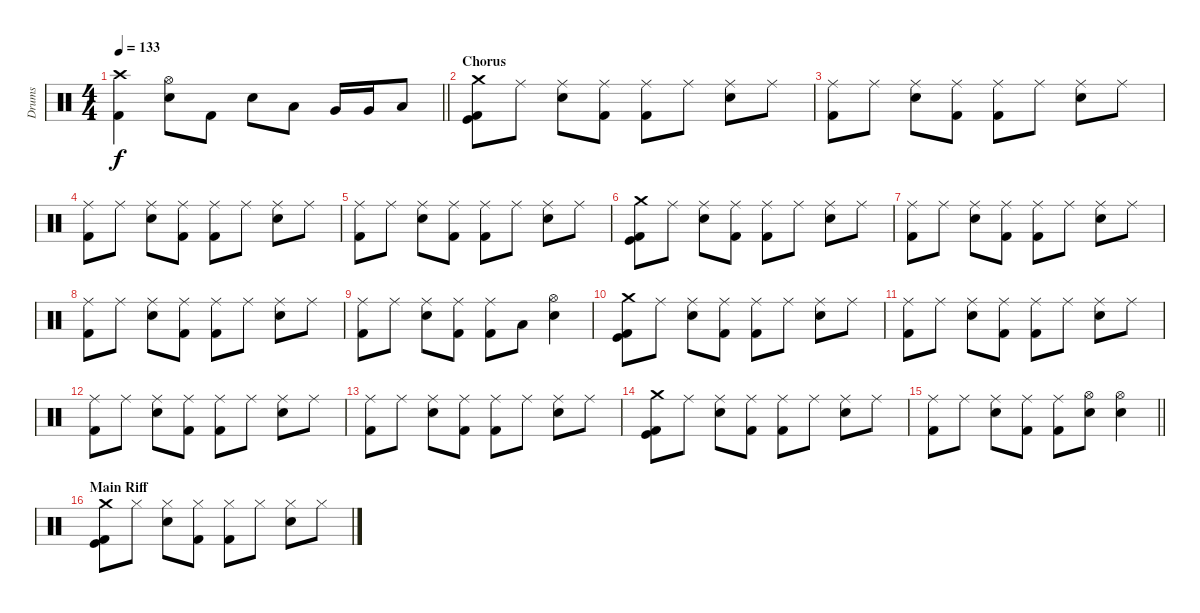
\track ("Drums" "Drums") {instrument percussion}
\staff {score}
\articulation defaults
\ts (4 4)
\tempo 133
\clef neutral
\barLineRight lightlight
\ks c
("Crash high (hit)" "Kick (hit) 2").4{dy f} ("Hi-Hat (open)" "Electric Snare (hit)").8 "Kick (hit) 2".8 "Electric Snare (hit)".8 "Low Tom (hit)".8 "Very Low Tom (hit)".16 "Very Low Tom (hit)".16 "Low Floor Tom (hit)".8 |
\section ("" "Chorus")
("Crash medium (hit)" "Kick (hit) 2" "Kick (hit)").8 "Ride (middle)".8 ("Ride (middle)" "Electric Snare (hit)").8 ("Ride (middle)" "Kick (hit) 2").8 ("Ride (middle)" "Kick (hit) 2").8 "Ride (middle)".8 ("Ride (middle)" "Electric Snare (hit)").8 "Ride (middle)".8 |
("Ride (middle)" "Kick (hit) 2").8 "Ride (middle)".8 ("Ride (middle)" "Electric Snare (hit)").8 ("Ride (middle)" "Kick (hit) 2").8 ("Ride (middle)" "Kick (hit) 2").8 "Ride (middle)".8 ("Ride (middle)" "Electric Snare (hit)").8 "Ride (middle)".8 |
("Ride (middle)" "Kick (hit) 2").8 "Ride (middle)".8 ("Ride (middle)" "Electric Snare (hit)").8 ("Ride (middle)" "Kick (hit) 2").8 ("Ride (middle)" "Kick (hit) 2").8 "Ride (middle)".8 ("Ride (middle)" "Electric Snare (hit)").8 "Ride (middle)".8 |
("Ride (middle)" "Kick (hit) 2").8 "Ride (middle)".8 ("Ride (middle)" "Electric Snare (hit)").8 ("Ride (middle)" "Kick (hit) 2").8 ("Ride (middle)" "Kick (hit) 2").8 "Ride (middle)".8 ("Ride (middle)" "Electric Snare (hit)").8 "Ride (middle)".8 |
("Crash medium (hit)" "Kick (hit) 2" "Kick (hit)").8 "Ride (middle)".8 ("Ride (middle)" "Electric Snare (hit)").8 ("Ride (middle)" "Kick (hit) 2").8 ("Ride (middle)" "Kick (hit) 2").8 "Ride (middle)".8 ("Ride (middle)" "Electric Snare (hit)").8 "Ride (middle)".8 |
("Ride (middle)" "Kick (hit) 2").8 "Ride (middle)".8 ("Ride (middle)" "Electric Snare (hit)").8 ("Ride (middle)" "Kick (hit) 2").8 ("Ride (middle)" "Kick (hit) 2").8 "Ride (middle)".8 ("Ride (middle)" "Electric Snare (hit)").8 "Ride (middle)".8 |
("Ride (middle)" "Kick (hit) 2").8 "Ride (middle)".8 ("Ride (middle)" "Electric Snare (hit)").8 ("Ride (middle)" "Kick (hit) 2").8 ("Ride (middle)" "Kick (hit) 2").8 "Ride (middle)".8 ("Ride (middle)" "Electric Snare (hit)").8 "Ride (middle)".8 |
("Ride (middle)" "Kick (hit) 2").8 "Ride (middle)".8 ("Ride (middle)" "Electric Snare (hit)").8 ("Ride (middle)" "Kick (hit) 2").8 ("Ride (middle)" "Kick (hit) 2").8 "Low Tom (hit)".8 ("Hi-Hat (open)" "Electric Snare (hit)").4 |
("Crash medium (hit)" "Kick (hit) 2" "Kick (hit)").8 "Ride (middle)".8 ("Ride (middle)" "Electric Snare (hit)").8 ("Ride (middle)" "Kick (hit) 2").8 ("Ride (middle)" "Kick (hit) 2").8 "Ride (middle)".8 ("Ride (middle)" "Electric Snare (hit)").8 "Ride (middle)".8 |
("Ride (middle)" "Kick (hit) 2").8 "Ride (middle)".8 ("Ride (middle)" "Electric Snare (hit)").8 ("Ride (middle)" "Kick (hit) 2").8 ("Ride (middle)" "Kick (hit) 2").8 "Ride (middle)".8 ("Ride (middle)" "Electric Snare (hit)").8 "Ride (middle)".8 |
("Ride (middle)" "Kick (hit) 2").8 "Ride (middle)".8 ("Ride (middle)" "Electric Snare (hit)").8 ("Ride (middle)" "Kick (hit) 2").8 ("Ride (middle)" "Kick (hit) 2").8 "Ride (middle)".8 ("Ride (middle)" "Electric Snare (hit)").8 "Ride (middle)".8 |
("Ride (middle)" "Kick (hit) 2").8 "Ride (middle)".8 ("Ride (middle)" "Electric Snare (hit)").8 ("Ride (middle)" "Kick (hit) 2").8 ("Ride (middle)" "Kick (hit) 2").8 "Ride (middle)".8 ("Ride (middle)" "Electric Snare (hit)").8 "Ride (middle)".8 |
("Crash medium (hit)" "Kick (hit) 2" "Kick (hit)").8 "Ride (middle)".8 ("Ride (middle)" "Electric Snare (hit)").8 ("Ride (middle)" "Kick (hit) 2").8 ("Ride (middle)" "Kick (hit) 2").8 "Ride (middle)".8 ("Ride (middle)" "Electric Snare (hit)").8 "Ride (middle)".8 |
\barLineRight lightlight
("Ride (middle)" "Kick (hit) 2").8 "Ride (middle)".8 ("Ride (middle)" "Electric Snare (hit)").8 ("Ride (middle)" "Kick (hit) 2").8 ("Ride (middle)" "Kick (hit) 2").8 ("Hi-Hat (open)" "Electric Snare (hit)").8 ("Hi-Hat (open)" "Electric Snare (hit)").4 |
\section ("" "Main Riff")
("Crash medium (hit)" "Kick (hit) 2" "Kick (hit)").8 "Hi-Hat (closed)".8 ("Hi-Hat (closed)" "Electric Snare (hit)").8 ("Hi-Hat (closed)" "Kick (hit) 2").8 ("Hi-Hat (closed)" "Kick (hit) 2").8 "Hi-Hat (closed)".8 ("Hi-Hat (closed)" "Electric Snare (hit)").8 "Hi-Hat (closed)".8
